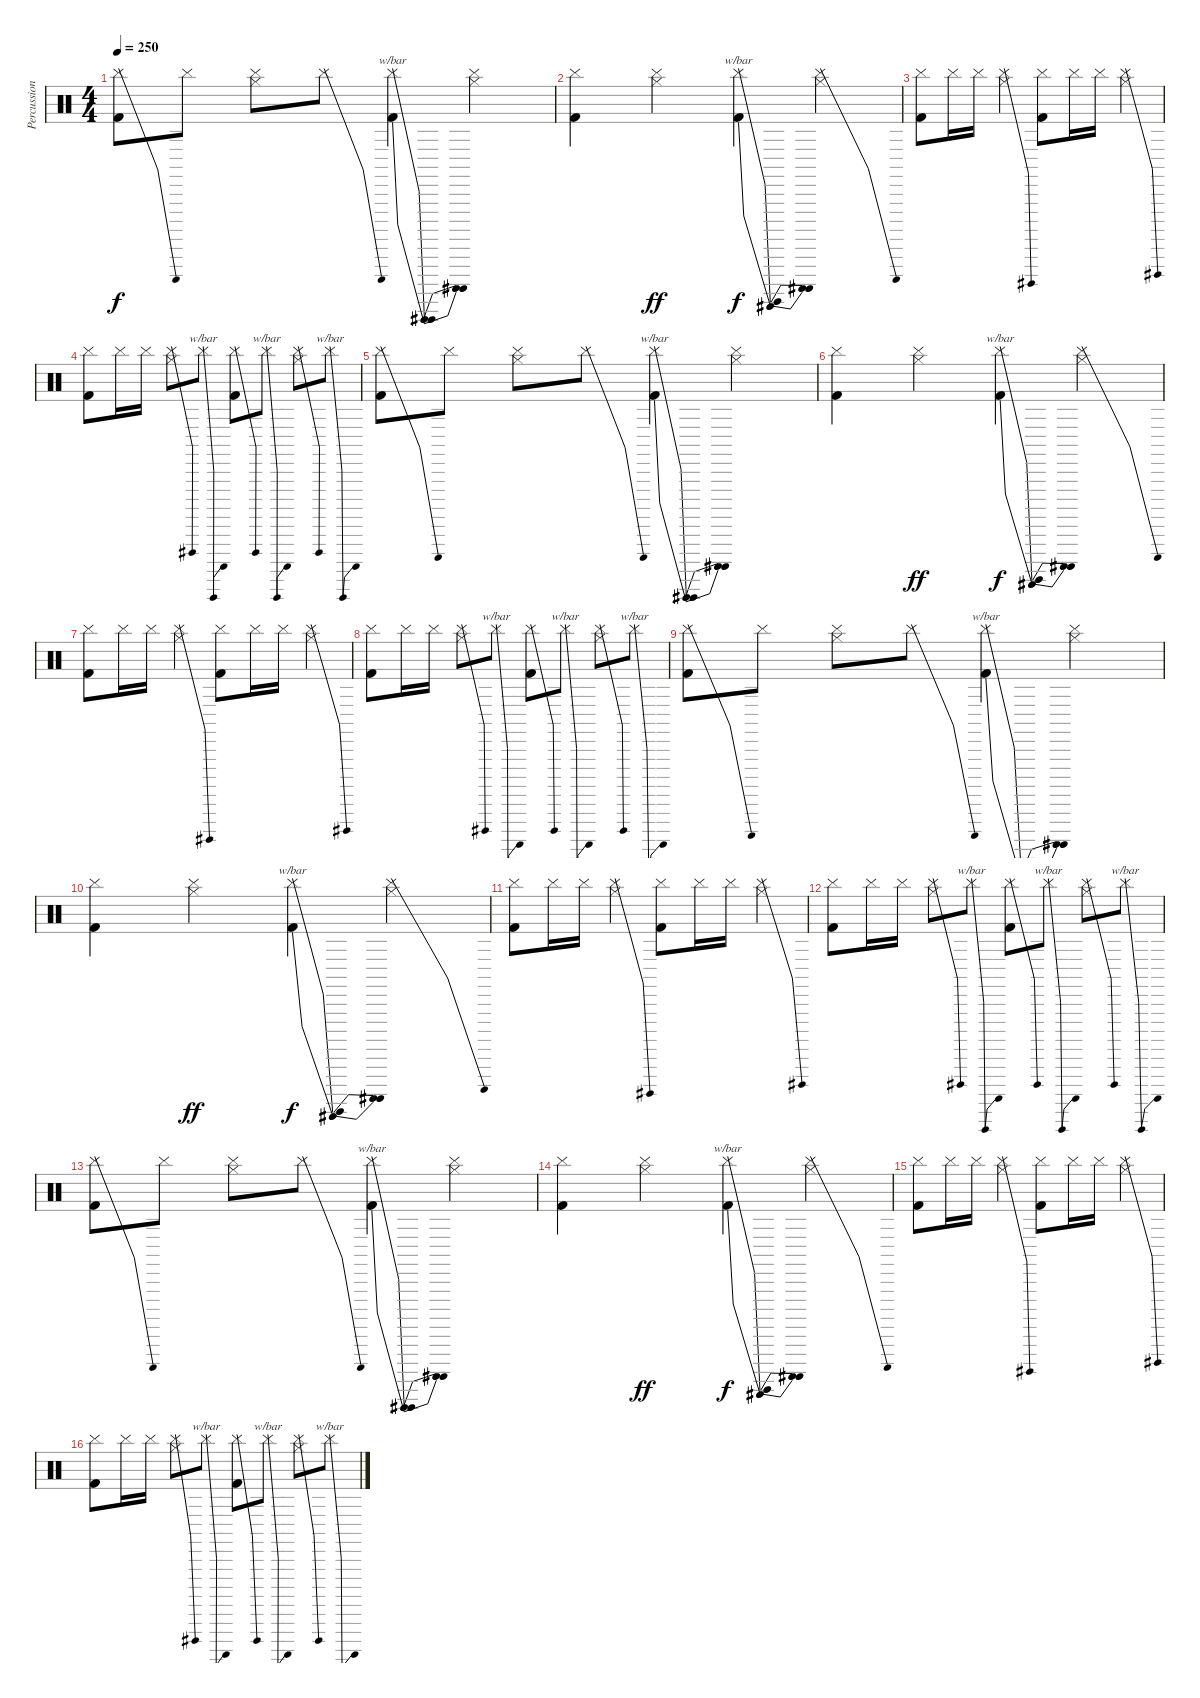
\track ("Percussion" "Percussion") {instrument percussion}
\staff {score}
\articulation defaults
\ts (4 4)
\tempo 250
\clef neutral
\ks c
("Cymbal (hit)"{be (bend 0 0 60 8)} "Kick (hit) 2").8{dy f} "Cymbal (hit)".8 ("Cymbal (hit)" "Hi-Hat (closed)").8 "Cymbal (hit)"{be (bend 0 0 60 8)}.8 ("Cymbal (hit)" "Kick (hit) 2").4{tbe (dip default 0 0 30 -24 60 0)} ("Cymbal (hit)"{be (custom 0 0 15 8 30 8 45 0 60 0)} "Hi-Hat (closed)").4 |
("Cymbal (hit)"{be (custom 0 0 15 8 30 8 45 0 60 0)} "Kick (hit) 2").4 ("Cymbal (hit)" "Hi-Hat (closed)").4{dy ff} ("Cymbal (hit)" "Kick (hit) 2").4{tbe (dip default 0 0 30 -12 60 0) dy f} ("Cymbal (hit)"{be (bend 0 0 60 8)} "Hi-Hat (closed)").4 |
("Cymbal (hit)" "Kick (hit) 2").8 "Cymbal (hit)".16 "Cymbal (hit)".16 ("Cymbal (hit)"{be (bend 0 0 60 6)} "Hi-Hat (closed)").4 ("Cymbal (hit)" "Kick (hit) 2").8 "Cymbal (hit)".16 "Cymbal (hit)".16 ("Cymbal (hit)"{be (bend 0 0 60 12)} "Hi-Hat (closed)").4 |
("Cymbal (hit)" "Kick (hit) 2").8 "Cymbal (hit)".16 "Cymbal (hit)".16 ("Cymbal (hit)"{be (bend 0 0 60 12)} "Hi-Hat (closed)").8 "Cymbal (hit)".8{tbe (dip default 0 0 30 -24 60 0)} ("Cymbal (hit)"{be (bend 0 0 60 12)} "Kick (hit) 2").8 "Cymbal (hit)".8{tbe (dip default 0 0 30 -24 60 0)} ("Cymbal (hit)"{be (bend 0 0 60 12)} "Hi-Hat (closed)").8 "Cymbal (hit)".8{tbe (dip default 0 0 30 -24 60 0)} |
("Cymbal (hit)"{be (bend 0 0 60 8)} "Kick (hit) 2").8 "Cymbal (hit)".8 ("Cymbal (hit)" "Hi-Hat (closed)").8 "Cymbal (hit)"{be (bend 0 0 60 8)}.8 ("Cymbal (hit)" "Kick (hit) 2").4{tbe (dip default 0 0 30 -24 60 0)} ("Cymbal (hit)"{be (custom 0 0 15 8 30 8 45 0 60 0)} "Hi-Hat (closed)").4 |
("Cymbal (hit)"{be (custom 0 0 15 8 30 8 45 0 60 0)} "Kick (hit) 2").4 ("Cymbal (hit)" "Hi-Hat (closed)").4{dy ff} ("Cymbal (hit)" "Kick (hit) 2").4{tbe (dip default 0 0 30 -12 60 0) dy f} ("Cymbal (hit)"{be (bend 0 0 60 8)} "Hi-Hat (closed)").4 |
("Cymbal (hit)" "Kick (hit) 2").8 "Cymbal (hit)".16 "Cymbal (hit)".16 ("Cymbal (hit)"{be (bend 0 0 60 6)} "Hi-Hat (closed)").4 ("Cymbal (hit)" "Kick (hit) 2").8 "Cymbal (hit)".16 "Cymbal (hit)".16 ("Cymbal (hit)"{be (bend 0 0 60 12)} "Hi-Hat (closed)").4 |
("Cymbal (hit)" "Kick (hit) 2").8 "Cymbal (hit)".16 "Cymbal (hit)".16 ("Cymbal (hit)"{be (bend 0 0 60 12)} "Hi-Hat (closed)").8 "Cymbal (hit)".8{tbe (dip default 0 0 30 -24 60 0)} ("Cymbal (hit)"{be (bend 0 0 60 12)} "Kick (hit) 2").8 "Cymbal (hit)".8{tbe (dip default 0 0 30 -24 60 0)} ("Cymbal (hit)"{be (bend 0 0 60 12)} "Hi-Hat (closed)").8 "Cymbal (hit)".8{tbe (dip default 0 0 30 -24 60 0)} |
("Cymbal (hit)"{be (bend 0 0 60 8)} "Kick (hit) 2").8 "Cymbal (hit)".8 ("Cymbal (hit)" "Hi-Hat (closed)").8 "Cymbal (hit)"{be (bend 0 0 60 8)}.8 ("Cymbal (hit)" "Kick (hit) 2").4{tbe (dip default 0 0 30 -24 60 0)} ("Cymbal (hit)"{be (custom 0 0 15 8 30 8 45 0 60 0)} "Hi-Hat (closed)").4 |
("Cymbal (hit)"{be (custom 0 0 15 8 30 8 45 0 60 0)} "Kick (hit) 2").4 ("Cymbal (hit)" "Hi-Hat (closed)").4{dy ff} ("Cymbal (hit)" "Kick (hit) 2").4{tbe (dip default 0 0 30 -12 60 0) dy f} ("Cymbal (hit)"{be (bend 0 0 60 8)} "Hi-Hat (closed)").4 |
("Cymbal (hit)" "Kick (hit) 2").8 "Cymbal (hit)".16 "Cymbal (hit)".16 ("Cymbal (hit)"{be (bend 0 0 60 6)} "Hi-Hat (closed)").4 ("Cymbal (hit)" "Kick (hit) 2").8 "Cymbal (hit)".16 "Cymbal (hit)".16 ("Cymbal (hit)"{be (bend 0 0 60 12)} "Hi-Hat (closed)").4 |
("Cymbal (hit)" "Kick (hit) 2").8 "Cymbal (hit)".16 "Cymbal (hit)".16 ("Cymbal (hit)"{be (bend 0 0 60 12)} "Hi-Hat (closed)").8 "Cymbal (hit)".8{tbe (dip default 0 0 30 -24 60 0)} ("Cymbal (hit)"{be (bend 0 0 60 12)} "Kick (hit) 2").8 "Cymbal (hit)".8{tbe (dip default 0 0 30 -24 60 0)} ("Cymbal (hit)"{be (bend 0 0 60 12)} "Hi-Hat (closed)").8 "Cymbal (hit)".8{tbe (dip default 0 0 30 -24 60 0)} |
("Cymbal (hit)"{be (bend 0 0 60 8)} "Kick (hit) 2").8 "Cymbal (hit)".8 ("Cymbal (hit)" "Hi-Hat (closed)").8 "Cymbal (hit)"{be (bend 0 0 60 8)}.8 ("Cymbal (hit)" "Kick (hit) 2").4{tbe (dip default 0 0 30 -24 60 0)} ("Cymbal (hit)"{be (custom 0 0 15 8 30 8 45 0 60 0)} "Hi-Hat (closed)").4 |
("Cymbal (hit)"{be (custom 0 0 15 8 30 8 45 0 60 0)} "Kick (hit) 2").4 ("Cymbal (hit)" "Hi-Hat (closed)").4{dy ff} ("Cymbal (hit)" "Kick (hit) 2").4{tbe (dip default 0 0 30 -12 60 0) dy f} ("Cymbal (hit)"{be (bend 0 0 60 8)} "Hi-Hat (closed)").4 |
("Cymbal (hit)" "Kick (hit) 2").8 "Cymbal (hit)".16 "Cymbal (hit)".16 ("Cymbal (hit)"{be (bend 0 0 60 6)} "Hi-Hat (closed)").4 ("Cymbal (hit)" "Kick (hit) 2").8 "Cymbal (hit)".16 "Cymbal (hit)".16 ("Cymbal (hit)"{be (bend 0 0 60 12)} "Hi-Hat (closed)").4 |
("Cymbal (hit)" "Kick (hit) 2").8 "Cymbal (hit)".16 "Cymbal (hit)".16 ("Cymbal (hit)"{be (bend 0 0 60 12)} "Hi-Hat (closed)").8 "Cymbal (hit)".8{tbe (dip default 0 0 30 -24 60 0)} ("Cymbal (hit)"{be (bend 0 0 60 12)} "Kick (hit) 2").8 "Cymbal (hit)".8{tbe (dip default 0 0 30 -24 60 0)} ("Cymbal (hit)"{be (bend 0 0 60 12)} "Hi-Hat (closed)").8 "Cymbal (hit)".8{tbe (dip default 0 0 30 -24 60 0)}
